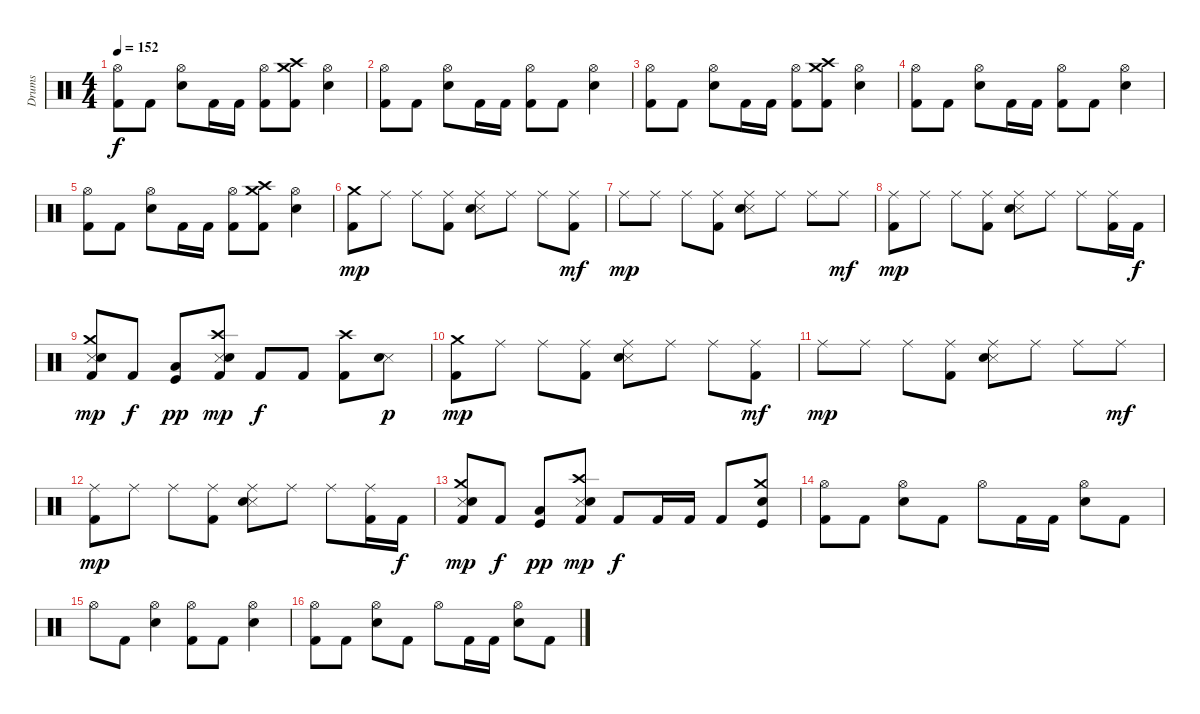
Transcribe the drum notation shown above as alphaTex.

\track ("Drums" "Drums") {instrument percussion}
\staff {score}
\articulation defaults
\ts (4 4)
\tempo 152
\clef neutral
\ks c
("Hi-Hat (open)" "Kick (hit) 2").8{dy f} "Kick (hit) 2".8 ("Hi-Hat (open)" "Snare (hit) 2").8 "Kick (hit) 2".16 "Kick (hit) 2".16 ("Hi-Hat (open)" "Kick (hit) 2").8 ("Crash medium (hit)" "Crash high (hit)" "Kick (hit) 2").8 ("Hi-Hat (open)" "Snare (hit) 2").4 |
("Hi-Hat (open)" "Kick (hit) 2").8 "Kick (hit) 2".8 ("Hi-Hat (open)" "Snare (hit) 2").8 "Kick (hit) 2".16 "Kick (hit) 2".16 ("Hi-Hat (open)" "Kick (hit) 2").8 "Kick (hit) 2".8 ("Hi-Hat (open)" "Snare (hit) 2").4 |
("Hi-Hat (open)" "Kick (hit) 2").8 "Kick (hit) 2".8 ("Hi-Hat (open)" "Snare (hit) 2").8 "Kick (hit) 2".16 "Kick (hit) 2".16 ("Hi-Hat (open)" "Kick (hit) 2").8 ("Crash medium (hit)" "Crash high (hit)" "Kick (hit) 2").8 ("Hi-Hat (open)" "Snare (hit) 2").4 |
("Hi-Hat (open)" "Kick (hit) 2").8 "Kick (hit) 2".8 ("Hi-Hat (open)" "Snare (hit) 2").8 "Kick (hit) 2".16 "Kick (hit) 2".16 ("Hi-Hat (open)" "Kick (hit) 2").8 "Kick (hit) 2".8 ("Hi-Hat (open)" "Snare (hit) 2").4 |
("Hi-Hat (open)" "Kick (hit) 2").8 "Kick (hit) 2".8 ("Hi-Hat (open)" "Snare (hit) 2").8 "Kick (hit) 2".16 "Kick (hit) 2".16 ("Hi-Hat (open)" "Kick (hit) 2").8 ("Crash medium (hit)" "Crash high (hit)" "Kick (hit) 2").8 ("Hi-Hat (open)" "Snare (hit) 2").4 |
("Crash medium (hit)" "Kick (hit) 2").8{dy mp volume 15} "Ride (middle)".8 "Ride (middle)".8 ("Ride (middle)" "Kick (hit) 2").8 ("Ride (middle)" "Snare (side stick) 3" "Snare (hit) 2").8 "Ride (middle)".8 "Ride (middle)".8 ("Ride (middle)" "Kick (hit) 2").8{dy mf} |
"Ride (middle)".8{dy mp} "Ride (middle)".8 "Ride (middle)".8 ("Ride (middle)" "Kick (hit) 2").8 ("Ride (middle)" "Snare (side stick) 3" "Snare (hit) 2").8 "Ride (middle)".8 "Ride (middle)".8 "Ride (middle)".8{dy mf} |
("Ride (middle)" "Kick (hit) 2").8{dy mp} "Ride (middle)".8 "Ride (middle)".8 ("Ride (middle)" "Kick (hit) 2").8 ("Ride (middle)" "Snare (side stick) 3" "Snare (hit) 2").8 "Ride (middle)".8 "Ride (middle)".8 ("Ride (middle)" "Kick (hit) 2").16 "Kick (hit) 2".16{dy f} |
("Crash medium (hit)" "Snare (side stick) 3" "Snare (hit) 2" "Kick (hit) 2").8{dy mp} "Kick (hit) 2".8{dy f} ("Low Tom (hit)" "Kick (hit)").8{dy pp} ("Crash high (hit)" "Snare (side stick) 3" "Snare (hit) 2" "Kick (hit) 2").8{dy mp} "Kick (hit) 2".8{dy f} "Kick (hit) 2".8 ("Crash high (hit)" "Kick (hit) 2").8 ("Snare (side stick) 3" "Snare (hit) 2").8{dy p} |
("Crash medium (hit)" "Kick (hit) 2").8{dy mp} "Ride (middle)".8 "Ride (middle)".8 ("Ride (middle)" "Kick (hit) 2").8 ("Ride (middle)" "Snare (side stick) 3" "Snare (hit) 2").8 "Ride (middle)".8 "Ride (middle)".8 ("Ride (middle)" "Kick (hit) 2").8{dy mf} |
"Ride (middle)".8{dy mp} "Ride (middle)".8 "Ride (middle)".8 ("Ride (middle)" "Kick (hit) 2").8 ("Ride (middle)" "Snare (side stick) 3" "Snare (hit) 2").8 "Ride (middle)".8 "Ride (middle)".8 "Ride (middle)".8{dy mf} |
("Ride (middle)" "Kick (hit) 2").8{dy mp} "Ride (middle)".8 "Ride (middle)".8 ("Ride (middle)" "Kick (hit) 2").8 ("Ride (middle)" "Snare (side stick) 3" "Snare (hit) 2").8 "Ride (middle)".8 "Ride (middle)".8 ("Ride (middle)" "Kick (hit) 2").16 "Kick (hit) 2".16{dy f} |
("Crash medium (hit)" "Snare (side stick) 3" "Snare (hit) 2" "Kick (hit) 2").8{dy mp} "Kick (hit) 2".8{dy f} ("Low Tom (hit)" "Kick (hit)").8{dy pp} ("Crash high (hit)" "Snare (side stick) 3" "Snare (hit) 2" "Kick (hit) 2").8{dy mp} "Kick (hit) 2".8{dy f} "Kick (hit) 2".16 "Kick (hit) 2".16 "Kick (hit) 2".8 ("Crash medium (hit)" "Snare (hit) 2" "Kick (hit)").8 |
("Hi-Hat (open)" "Kick (hit) 2").8{volume 13} "Kick (hit) 2".8 ("Hi-Hat (open)" "Snare (hit) 2").8 "Kick (hit) 2".8 "Hi-Hat (open)".8 "Kick (hit) 2".16 "Kick (hit) 2".16 ("Hi-Hat (open)" "Snare (hit) 2").8 "Kick (hit) 2".8 |
"Hi-Hat (open)".8 "Kick (hit) 2".8 ("Hi-Hat (open)" "Snare (hit) 2").4 ("Hi-Hat (open)" "Kick (hit) 2").8 "Kick (hit) 2".8 ("Hi-Hat (open)" "Snare (hit) 2").4 |
("Hi-Hat (open)" "Kick (hit) 2").8 "Kick (hit) 2".8 ("Hi-Hat (open)" "Snare (hit) 2").8 "Kick (hit) 2".8 "Hi-Hat (open)".8 "Kick (hit) 2".16 "Kick (hit) 2".16 ("Hi-Hat (open)" "Snare (hit) 2").8 "Kick (hit) 2".8
